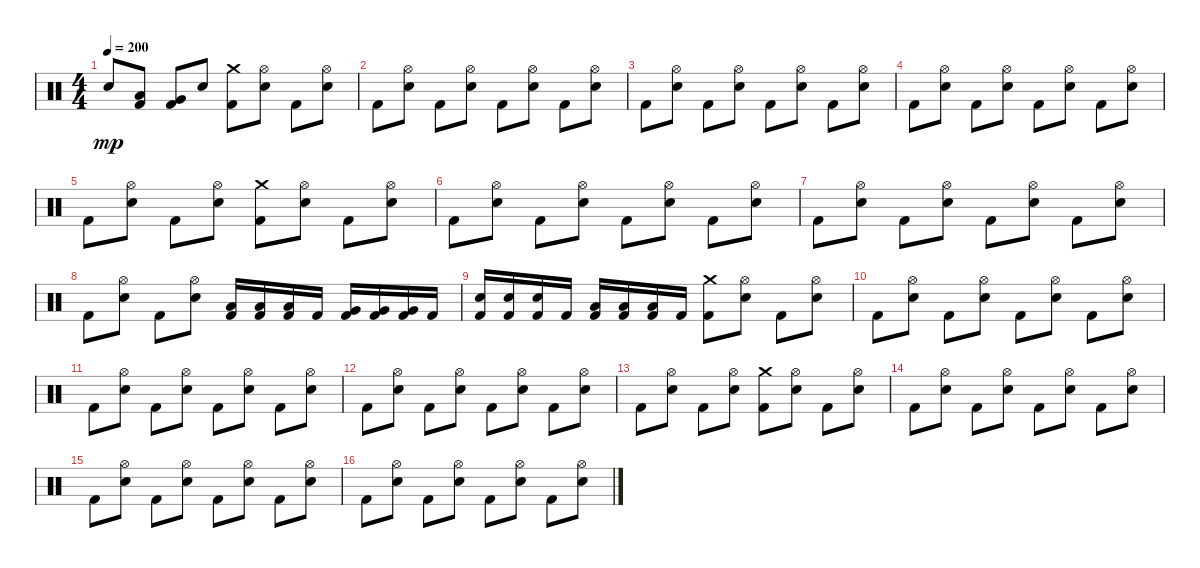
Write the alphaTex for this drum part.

\track "" {instrument percussion}
\staff {score}
\articulation defaults
\ts (4 4)
\tempo 200
\clef neutral
\ks c "Electric Snare (hit)".8{dy mp}
("Kick (hit) 2" "Low Tom (hit)").8 ("Kick (hit) 2" "Very Low Tom (hit)").8 "Electric Snare (hit)".8 ("Kick (hit) 2" "Crash medium (hit)").8 ("Electric Snare (hit)" "Hi-Hat (open)").8 "Kick (hit) 2".8 ("Electric Snare (hit)" "Hi-Hat (open)").8 |
"Kick (hit) 2".8 ("Electric Snare (hit)" "Hi-Hat (open)").8 "Kick (hit) 2".8 ("Electric Snare (hit)" "Hi-Hat (open)").8 "Kick (hit) 2".8 ("Electric Snare (hit)" "Hi-Hat (open)").8 "Kick (hit) 2".8 ("Electric Snare (hit)" "Hi-Hat (open)").8 |
"Kick (hit) 2".8 ("Electric Snare (hit)" "Hi-Hat (open)").8 "Kick (hit) 2".8 ("Electric Snare (hit)" "Hi-Hat (open)").8 "Kick (hit) 2".8 ("Electric Snare (hit)" "Hi-Hat (open)").8 "Kick (hit) 2".8 ("Electric Snare (hit)" "Hi-Hat (open)").8 |
"Kick (hit) 2".8 ("Electric Snare (hit)" "Hi-Hat (open)").8 "Kick (hit) 2".8 ("Electric Snare (hit)" "Hi-Hat (open)").8 "Kick (hit) 2".8 ("Electric Snare (hit)" "Hi-Hat (open)").8 "Kick (hit) 2".8 ("Electric Snare (hit)" "Hi-Hat (open)").8 |
"Kick (hit) 2".8 ("Electric Snare (hit)" "Hi-Hat (open)").8 "Kick (hit) 2".8 ("Electric Snare (hit)" "Hi-Hat (open)").8 ("Kick (hit) 2" "Crash medium (hit)").8 ("Electric Snare (hit)" "Hi-Hat (open)").8 "Kick (hit) 2".8 ("Electric Snare (hit)" "Hi-Hat (open)").8 |
"Kick (hit) 2".8 ("Electric Snare (hit)" "Hi-Hat (open)").8 "Kick (hit) 2".8 ("Electric Snare (hit)" "Hi-Hat (open)").8 "Kick (hit) 2".8 ("Electric Snare (hit)" "Hi-Hat (open)").8 "Kick (hit) 2".8 ("Electric Snare (hit)" "Hi-Hat (open)").8 |
"Kick (hit) 2".8 ("Electric Snare (hit)" "Hi-Hat (open)").8 "Kick (hit) 2".8 ("Electric Snare (hit)" "Hi-Hat (open)").8 "Kick (hit) 2".8 ("Electric Snare (hit)" "Hi-Hat (open)").8 "Kick (hit) 2".8 ("Electric Snare (hit)" "Hi-Hat (open)").8 |
"Kick (hit) 2".8 ("Electric Snare (hit)" "Hi-Hat (open)").8 "Kick (hit) 2".8 ("Electric Snare (hit)" "Hi-Hat (open)").8 ("Kick (hit) 2" "Low Tom (hit)").16 ("Kick (hit) 2" "Low Tom (hit)").16 ("Kick (hit) 2" "Low Tom (hit)").16 "Kick (hit) 2".16 ("Kick (hit) 2" "Very Low Tom (hit)").16 ("Kick (hit) 2" "Very Low Tom (hit)").16 ("Kick (hit) 2" "Very Low Tom (hit)").16 "Kick (hit) 2".16 |
("Kick (hit) 2" "Electric Snare (hit)").16 ("Kick (hit) 2" "Electric Snare (hit)").16 ("Kick (hit) 2" "Electric Snare (hit)").16 "Kick (hit) 2".16 ("Kick (hit) 2" "Low Floor Tom (hit)").16 ("Kick (hit) 2" "Low Floor Tom (hit)").16 ("Kick (hit) 2" "Low Floor Tom (hit)").16 "Kick (hit) 2".16 ("Kick (hit) 2" "Crash medium (hit)").8 ("Electric Snare (hit)" "Hi-Hat (open)").8 "Kick (hit) 2".8 ("Electric Snare (hit)" "Hi-Hat (open)").8 |
"Kick (hit) 2".8 ("Electric Snare (hit)" "Hi-Hat (open)").8 "Kick (hit) 2".8 ("Electric Snare (hit)" "Hi-Hat (open)").8 "Kick (hit) 2".8 ("Electric Snare (hit)" "Hi-Hat (open)").8 "Kick (hit) 2".8 ("Electric Snare (hit)" "Hi-Hat (open)").8 |
"Kick (hit) 2".8 ("Electric Snare (hit)" "Hi-Hat (open)").8 "Kick (hit) 2".8 ("Electric Snare (hit)" "Hi-Hat (open)").8 "Kick (hit) 2".8 ("Electric Snare (hit)" "Hi-Hat (open)").8 "Kick (hit) 2".8 ("Electric Snare (hit)" "Hi-Hat (open)").8 |
"Kick (hit) 2".8 ("Electric Snare (hit)" "Hi-Hat (open)").8 "Kick (hit) 2".8 ("Electric Snare (hit)" "Hi-Hat (open)").8 "Kick (hit) 2".8 ("Electric Snare (hit)" "Hi-Hat (open)").8 "Kick (hit) 2".8 ("Electric Snare (hit)" "Hi-Hat (open)").8 |
"Kick (hit) 2".8 ("Electric Snare (hit)" "Hi-Hat (open)").8 "Kick (hit) 2".8 ("Electric Snare (hit)" "Hi-Hat (open)").8 ("Kick (hit) 2" "Crash medium (hit)").8 ("Electric Snare (hit)" "Hi-Hat (open)").8 "Kick (hit) 2".8 ("Electric Snare (hit)" "Hi-Hat (open)").8 |
"Kick (hit) 2".8 ("Electric Snare (hit)" "Hi-Hat (open)").8 "Kick (hit) 2".8 ("Electric Snare (hit)" "Hi-Hat (open)").8 "Kick (hit) 2".8 ("Electric Snare (hit)" "Hi-Hat (open)").8 "Kick (hit) 2".8 ("Electric Snare (hit)" "Hi-Hat (open)").8 |
"Kick (hit) 2".8 ("Electric Snare (hit)" "Hi-Hat (open)").8 "Kick (hit) 2".8 ("Electric Snare (hit)" "Hi-Hat (open)").8 "Kick (hit) 2".8 ("Electric Snare (hit)" "Hi-Hat (open)").8 "Kick (hit) 2".8 ("Electric Snare (hit)" "Hi-Hat (open)").8 |
"Kick (hit) 2".8 ("Electric Snare (hit)" "Hi-Hat (open)").8 "Kick (hit) 2".8 ("Electric Snare (hit)" "Hi-Hat (open)").8 "Kick (hit) 2".8 ("Electric Snare (hit)" "Hi-Hat (open)").8 "Kick (hit) 2".8 ("Electric Snare (hit)" "Hi-Hat (open)").8
